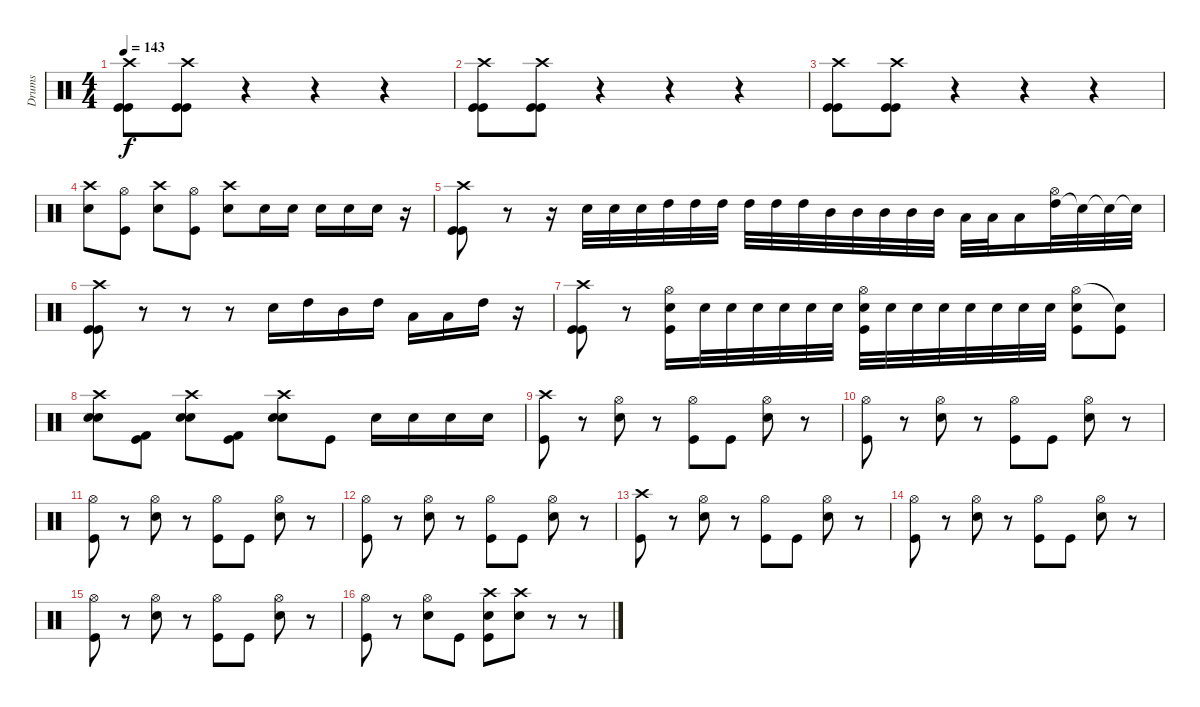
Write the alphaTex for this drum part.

\track ("Drums" "Drums") {instrument percussion}
\staff {score}
\articulation defaults
\ts (4 4)
\tempo 143
\clef neutral
\ks c
("Kick (hit)" "Crash high (hit)" "Kick (hit)").8{dy f} ("Kick (hit)" "Crash high (hit)" "Kick (hit)").8 r.4 r.4 r.4 |
("Kick (hit)" "Crash high (hit)" "Kick (hit)").8 ("Kick (hit)" "Crash high (hit)" "Kick (hit)").8 r.4 r.4 r.4 |
("Kick (hit)" "Crash high (hit)" "Kick (hit)").8 ("Kick (hit)" "Crash high (hit)" "Kick (hit)").8 r.4 r.4 r.4 |
("Electric Snare (hit)" "Crash high (hit)").8 ("Kick (hit)" "Hi-Hat (open)").8 ("Electric Snare (hit)" "Crash high (hit)").8 ("Kick (hit)" "Hi-Hat (open)").8 ("Electric Snare (hit)" "Crash high (hit)").8 "Electric Snare (hit)".16 "Electric Snare (hit)".16 "Electric Snare (hit)".16 "Electric Snare (hit)".16 "Electric Snare (hit)".16 r.16 |
("Kick (hit)" "Crash high (hit)" "Kick (hit)").8 r.8 r.16 "Snare (hit) 2".32 "Snare (hit) 2".32 "Snare (hit) 2".32 "High Tom (hit)".32 "High Tom (hit)".32 "High Tom (hit)".32 "High Tom (hit)".32 "High Tom (hit)".32 "High Tom (hit)".32 "Mid Tom (hit)".32 "Mid Tom (hit)".32 "Mid Tom (hit)".32 "Mid Tom (hit)".32 "Mid Tom (hit)".32 "Low Tom (hit)".32 "Low Tom (hit)".32 "Low Tom (hit)".16 ("High Tom (hit)" "Hi-Hat (open)").32 "Snare (hit)"{t}.32 "Snare (hit)"{t}.32 "Snare (hit)"{t}.32 |
("Kick (hit)" "Crash high (hit)" "Kick (hit)").8 r.8 r.8 r.8 "Electric Snare (hit)".16 "High Tom (hit)".16 "Mid Tom (hit)".16 "High Tom (hit)".16 "Low Tom (hit)".16 "Low Tom (hit)".16 "High Tom (hit)".16 r.16 |
("Kick (hit)" "Crash high (hit)" "Kick (hit)").8 r.8 ("Electric Snare (hit)" "Kick (hit)" "Hi-Hat (open)").16 "Electric Snare (hit)".32 "Electric Snare (hit)".32 "Electric Snare (hit)".32 "Electric Snare (hit)".32 "Electric Snare (hit)".32 "Electric Snare (hit)".32 ("Electric Snare (hit)" "Kick (hit)" "Hi-Hat (open)").32 "Electric Snare (hit)".32 "Electric Snare (hit)".32 "Electric Snare (hit)".32 "Electric Snare (hit)".32 "Electric Snare (hit)".32 "Electric Snare (hit)".32 "Electric Snare (hit)".32 ("Electric Snare (hit)" "Hi-Hat (open)" "Kick (hit)").8 ("Kick (hit)" "Snare (hit)"{t}).8 |
("Electric Snare (hit)" "Crash high (hit)" "Electric Snare (hit)").8 ("Kick (hit) 2" "Kick (hit)").8 ("Electric Snare (hit)" "Crash high (hit)" "Electric Snare (hit)").8 ("Kick (hit) 2" "Kick (hit)").8 ("Electric Snare (hit)" "Crash high (hit)" "Electric Snare (hit)").8 "Kick (hit)".8 "Electric Snare (hit)".16 "Electric Snare (hit)".16 "Electric Snare (hit)".16 "Electric Snare (hit)".16 |
("Crash high (hit)" "Kick (hit)").8 r.8 ("Hi-Hat (open)" "Electric Snare (hit)").8 r.8 ("Hi-Hat (open)" "Kick (hit)").8 "Kick (hit)".8 ("Hi-Hat (open)" "Electric Snare (hit)").8 r.8 |
("Hi-Hat (open)" "Kick (hit)").8 r.8 ("Hi-Hat (open)" "Electric Snare (hit)").8 r.8 ("Hi-Hat (open)" "Kick (hit)").8 "Kick (hit)".8 ("Hi-Hat (open)" "Electric Snare (hit)").8 r.8 |
("Hi-Hat (open)" "Kick (hit)").8 r.8 ("Hi-Hat (open)" "Electric Snare (hit)").8 r.8 ("Hi-Hat (open)" "Kick (hit)").8 "Kick (hit)".8 ("Hi-Hat (open)" "Electric Snare (hit)").8 r.8 |
("Hi-Hat (open)" "Kick (hit)").8 r.8 ("Hi-Hat (open)" "Electric Snare (hit)").8 r.8 ("Hi-Hat (open)" "Kick (hit)").8 "Kick (hit)".8 ("Hi-Hat (open)" "Electric Snare (hit)").8 r.8 |
("Crash high (hit)" "Kick (hit)").8 r.8 ("Hi-Hat (open)" "Electric Snare (hit)").8 r.8 ("Hi-Hat (open)" "Kick (hit)").8 "Kick (hit)".8 ("Hi-Hat (open)" "Electric Snare (hit)").8 r.8 |
("Hi-Hat (open)" "Kick (hit)").8 r.8 ("Hi-Hat (open)" "Electric Snare (hit)").8 r.8 ("Hi-Hat (open)" "Kick (hit)").8 "Kick (hit)".8 ("Hi-Hat (open)" "Electric Snare (hit)").8 r.8 |
("Hi-Hat (open)" "Kick (hit)").8 r.8 ("Hi-Hat (open)" "Electric Snare (hit)").8 r.8 ("Hi-Hat (open)" "Kick (hit)").8 "Kick (hit)".8 ("Hi-Hat (open)" "Electric Snare (hit)").8 r.8 |
("Hi-Hat (open)" "Kick (hit)").8 r.8 ("Hi-Hat (open)" "Electric Snare (hit)").8 "Kick (hit)".8 ("Crash high (hit)" "Electric Snare (hit)" "Kick (hit)").8 ("Crash high (hit)" "Electric Snare (hit)").8 r.8 r.8
